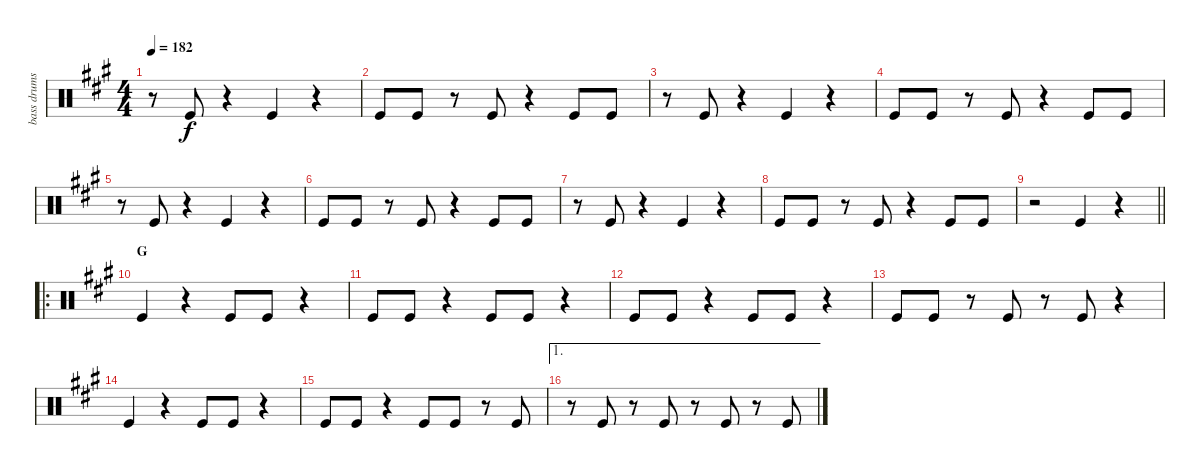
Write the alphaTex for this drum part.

\track ("bass drums" "bass drums") {instrument percussion}
\staff {score}
\articulation defaults
\ts (4 4)
\tempo 182
\clef neutral
\ks f#minor
r.8{dy f} "Kick (hit)".8 r.4 "Kick (hit)".4 r.4 |
"Kick (hit)".8 "Kick (hit)".8 r.8 "Kick (hit)".8 r.4 "Kick (hit)".8 "Kick (hit)".8 |
r.8 "Kick (hit)".8 r.4 "Kick (hit)".4 r.4 |
"Kick (hit)".8 "Kick (hit)".8 r.8 "Kick (hit)".8 r.4 "Kick (hit)".8 "Kick (hit)".8 |
r.8 "Kick (hit)".8 r.4 "Kick (hit)".4 r.4 |
"Kick (hit)".8 "Kick (hit)".8 r.8 "Kick (hit)".8 r.4 "Kick (hit)".8 "Kick (hit)".8 |
r.8 "Kick (hit)".8 r.4 "Kick (hit)".4 r.4 |
"Kick (hit)".8 "Kick (hit)".8 r.8 "Kick (hit)".8 r.4 "Kick (hit)".8 "Kick (hit)".8 |
\barLineRight lightlight
r.2 "Kick (hit)".4 r.4 |
\ro
\section ("" "G")
"Kick (hit)".4 r.4 "Kick (hit)".8 "Kick (hit)".8 r.4 |
"Kick (hit)".8 "Kick (hit)".8 r.4 "Kick (hit)".8 "Kick (hit)".8 r.4 |
"Kick (hit)".8 "Kick (hit)".8 r.4 "Kick (hit)".8 "Kick (hit)".8 r.4 |
"Kick (hit)".8 "Kick (hit)".8 r.8 "Kick (hit)".8 r.8 "Kick (hit)".8 r.4 |
"Kick (hit)".4 r.4 "Kick (hit)".8 "Kick (hit)".8 r.4 |
"Kick (hit)".8 "Kick (hit)".8 r.4 "Kick (hit)".8 "Kick (hit)".8 r.8 "Kick (hit)".8 |
\ae 1
r.8 "Kick (hit)".8 r.8 "Kick (hit)".8 r.8 "Kick (hit)".8 r.8 "Kick (hit)".8
